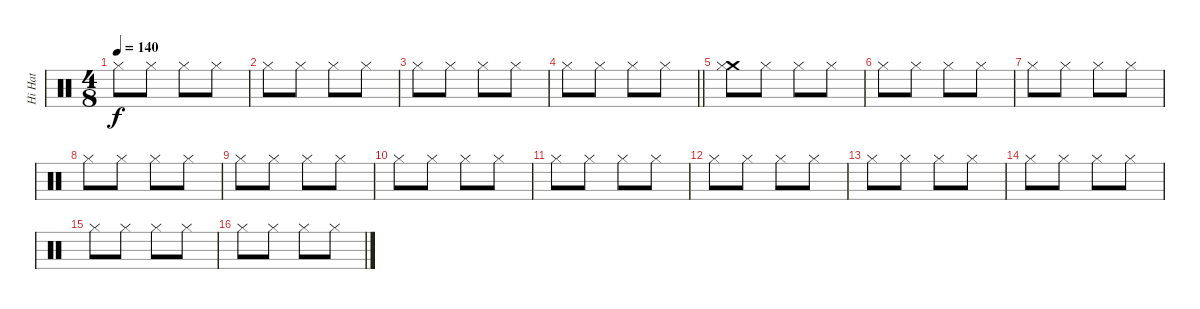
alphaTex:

\track ("Hi Hat" "Hi Hat") {instrument percussion}
\staff {score}
\articulation defaults
\ts (4 8)
\tempo 140
\clef neutral
\ks c "Hi-Hat (closed)".8{dy f} "Hi-Hat (closed)".8 "Hi-Hat (closed)".8 "Hi-Hat (closed)".8
|
"Hi-Hat (closed)".8 "Hi-Hat (closed)".8 "Hi-Hat (closed)".8 "Hi-Hat (closed)".8 |
"Hi-Hat (closed)".8 "Hi-Hat (closed)".8 "Hi-Hat (closed)".8 "Hi-Hat (closed)".8 |
\barLineRight lightlight "Hi-Hat (closed)".8 "Hi-Hat (closed)".8 "Hi-Hat (closed)".8 "Hi-Hat (closed)".8
|
("Crash medium (hit)" "Hi-Hat (closed)").8 "Hi-Hat (closed)".8 "Hi-Hat (closed)".8 "Hi-Hat (closed)".8 |
"Hi-Hat (closed)".8 "Hi-Hat (closed)".8 "Hi-Hat (closed)".8 "Hi-Hat (closed)".8 |
"Hi-Hat (closed)".8 "Hi-Hat (closed)".8 "Hi-Hat (closed)".8 "Hi-Hat (closed)".8 |
"Hi-Hat (closed)".8 "Hi-Hat (closed)".8 "Hi-Hat (closed)".8 "Hi-Hat (closed)".8 |
"Hi-Hat (closed)".8 "Hi-Hat (closed)".8 "Hi-Hat (closed)".8 "Hi-Hat (closed)".8 |
"Hi-Hat (closed)".8 "Hi-Hat (closed)".8 "Hi-Hat (closed)".8 "Hi-Hat (closed)".8 |
"Hi-Hat (closed)".8 "Hi-Hat (closed)".8 "Hi-Hat (closed)".8 "Hi-Hat (closed)".8 |
"Hi-Hat (closed)".8 "Hi-Hat (closed)".8 "Hi-Hat (closed)".8 "Hi-Hat (closed)".8 |
"Hi-Hat (closed)".8 "Hi-Hat (closed)".8 "Hi-Hat (closed)".8 "Hi-Hat (closed)".8 |
"Hi-Hat (closed)".8 "Hi-Hat (closed)".8 "Hi-Hat (closed)".8 "Hi-Hat (closed)".8 |
"Hi-Hat (closed)".8 "Hi-Hat (closed)".8 "Hi-Hat (closed)".8 "Hi-Hat (closed)".8 |
"Hi-Hat (closed)".8 "Hi-Hat (closed)".8 "Hi-Hat (closed)".8 "Hi-Hat (closed)".8
